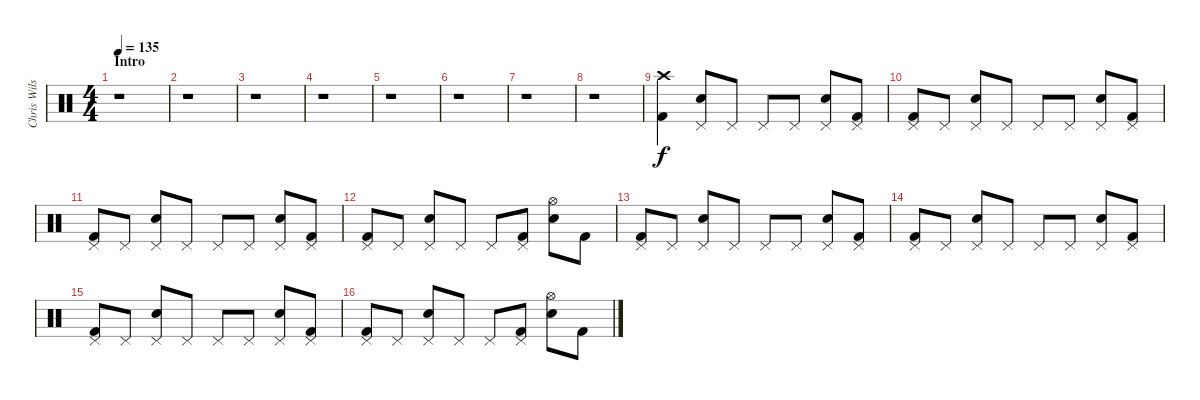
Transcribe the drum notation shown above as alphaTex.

\track ("Chris Wilson - Drums" "Chris Wils") {instrument percussion}
\staff {score}
\articulation defaults
\ts (4 4)
\section ("" "Intro")
\tempo 135
\clef neutral
\ks c
r.1{dy f} |
r.1 |
r.1 |
r.1 |
r.1 |
r.1 |
r.1 |
r.1 |
("Crash high (hit)" "Kick (hit) 2").4 ("Pedal Hi-Hat (hit)" "Snare (hit) 2").8 "Pedal Hi-Hat (hit)".8 "Pedal Hi-Hat (hit)".8 "Pedal Hi-Hat (hit)".8 ("Pedal Hi-Hat (hit)" "Snare (hit) 2").8 ("Pedal Hi-Hat (hit)" "Kick (hit) 2").8 |
("Pedal Hi-Hat (hit)" "Kick (hit) 2").8 "Pedal Hi-Hat (hit)".8 ("Pedal Hi-Hat (hit)" "Snare (hit) 2").8 "Pedal Hi-Hat (hit)".8 "Pedal Hi-Hat (hit)".8 "Pedal Hi-Hat (hit)".8 ("Pedal Hi-Hat (hit)" "Snare (hit) 2").8 ("Pedal Hi-Hat (hit)" "Kick (hit) 2").8 |
("Pedal Hi-Hat (hit)" "Kick (hit) 2").8 "Pedal Hi-Hat (hit)".8 ("Pedal Hi-Hat (hit)" "Snare (hit) 2").8 "Pedal Hi-Hat (hit)".8 "Pedal Hi-Hat (hit)".8 "Pedal Hi-Hat (hit)".8 ("Pedal Hi-Hat (hit)" "Snare (hit) 2").8 ("Pedal Hi-Hat (hit)" "Kick (hit) 2").8 |
("Pedal Hi-Hat (hit)" "Kick (hit) 2").8 "Pedal Hi-Hat (hit)".8 ("Pedal Hi-Hat (hit)" "Snare (hit) 2").8 "Pedal Hi-Hat (hit)".8 "Pedal Hi-Hat (hit)".8 ("Pedal Hi-Hat (hit)" "Kick (hit) 2").8 ("Hi-Hat (open)" "Snare (hit) 2").8 "Kick (hit) 2".8 |
("Pedal Hi-Hat (hit)" "Kick (hit) 2").8 "Pedal Hi-Hat (hit)".8 ("Pedal Hi-Hat (hit)" "Snare (hit) 2").8 "Pedal Hi-Hat (hit)".8 "Pedal Hi-Hat (hit)".8 "Pedal Hi-Hat (hit)".8 ("Pedal Hi-Hat (hit)" "Snare (hit) 2").8 ("Pedal Hi-Hat (hit)" "Kick (hit) 2").8 |
("Pedal Hi-Hat (hit)" "Kick (hit) 2").8 "Pedal Hi-Hat (hit)".8 ("Pedal Hi-Hat (hit)" "Snare (hit) 2").8 "Pedal Hi-Hat (hit)".8 "Pedal Hi-Hat (hit)".8 "Pedal Hi-Hat (hit)".8 ("Pedal Hi-Hat (hit)" "Snare (hit) 2").8 ("Pedal Hi-Hat (hit)" "Kick (hit) 2").8 |
("Pedal Hi-Hat (hit)" "Kick (hit) 2").8 "Pedal Hi-Hat (hit)".8 ("Pedal Hi-Hat (hit)" "Snare (hit) 2").8 "Pedal Hi-Hat (hit)".8 "Pedal Hi-Hat (hit)".8 "Pedal Hi-Hat (hit)".8 ("Pedal Hi-Hat (hit)" "Snare (hit) 2").8 ("Pedal Hi-Hat (hit)" "Kick (hit) 2").8 |
("Pedal Hi-Hat (hit)" "Kick (hit) 2").8 "Pedal Hi-Hat (hit)".8 ("Pedal Hi-Hat (hit)" "Snare (hit) 2").8 "Pedal Hi-Hat (hit)".8 "Pedal Hi-Hat (hit)".8 ("Pedal Hi-Hat (hit)" "Kick (hit) 2").8 ("Hi-Hat (open)" "Snare (hit) 2").8 "Kick (hit) 2".8
